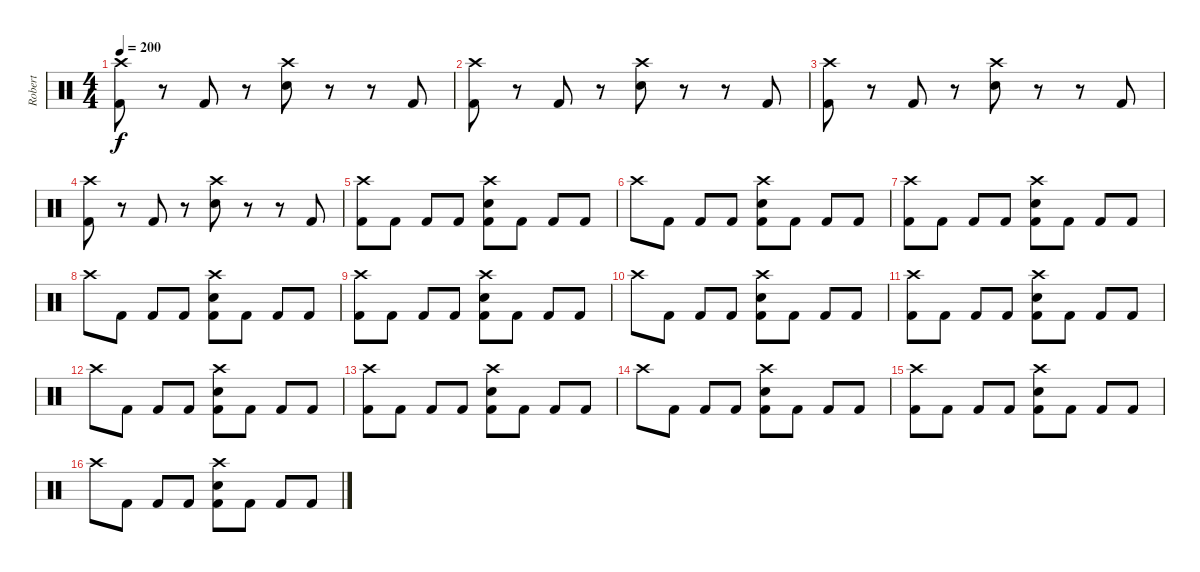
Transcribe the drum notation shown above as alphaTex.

\track ("Robert" "Robert") {instrument percussion}
\staff {score}
\articulation defaults
\ts (4 4)
\tempo 200
\clef neutral
\ks c
("Crash high (hit)" "Kick (hit) 2").8{dy f} r.8 "Kick (hit) 2".8 r.8 ("Crash high (hit)" "Electric Snare (hit)").8 r.8 r.8 "Kick (hit) 2".8 |
("Crash high (hit)" "Kick (hit) 2").8 r.8 "Kick (hit) 2".8 r.8 ("Crash high (hit)" "Electric Snare (hit)").8 r.8 r.8 "Kick (hit) 2".8 |
("Crash high (hit)" "Kick (hit) 2").8 r.8 "Kick (hit) 2".8 r.8 ("Crash high (hit)" "Electric Snare (hit)").8 r.8 r.8 "Kick (hit) 2".8 |
("Crash high (hit)" "Kick (hit) 2").8 r.8 "Kick (hit) 2".8 r.8 ("Crash high (hit)" "Electric Snare (hit)").8 r.8 r.8 "Kick (hit) 2".8 |
("Crash high (hit)" "Kick (hit) 2").8{volume 12} "Kick (hit) 2".8 "Kick (hit) 2".8 "Kick (hit) 2".8 ("Crash high (hit)" "Electric Snare (hit)" "Kick (hit) 2").8 "Kick (hit) 2".8 "Kick (hit) 2".8 "Kick (hit) 2".8 |
"Crash high (hit)".8 "Kick (hit) 2".8 "Kick (hit) 2".8 "Kick (hit) 2".8 ("Crash high (hit)" "Electric Snare (hit)" "Kick (hit) 2").8 "Kick (hit) 2".8 "Kick (hit) 2".8 "Kick (hit) 2".8 |
("Crash high (hit)" "Kick (hit) 2").8 "Kick (hit) 2".8 "Kick (hit) 2".8 "Kick (hit) 2".8 ("Crash high (hit)" "Electric Snare (hit)" "Kick (hit) 2").8 "Kick (hit) 2".8 "Kick (hit) 2".8 "Kick (hit) 2".8 |
"Crash high (hit)".8 "Kick (hit) 2".8 "Kick (hit) 2".8 "Kick (hit) 2".8 ("Crash high (hit)" "Electric Snare (hit)" "Kick (hit) 2").8 "Kick (hit) 2".8 "Kick (hit) 2".8 "Kick (hit) 2".8 |
("Crash high (hit)" "Kick (hit) 2").8 "Kick (hit) 2".8 "Kick (hit) 2".8 "Kick (hit) 2".8 ("Crash high (hit)" "Electric Snare (hit)" "Kick (hit) 2").8 "Kick (hit) 2".8 "Kick (hit) 2".8 "Kick (hit) 2".8 |
"Crash high (hit)".8 "Kick (hit) 2".8 "Kick (hit) 2".8 "Kick (hit) 2".8 ("Crash high (hit)" "Electric Snare (hit)" "Kick (hit) 2").8 "Kick (hit) 2".8 "Kick (hit) 2".8 "Kick (hit) 2".8 |
("Crash high (hit)" "Kick (hit) 2").8 "Kick (hit) 2".8 "Kick (hit) 2".8 "Kick (hit) 2".8 ("Crash high (hit)" "Electric Snare (hit)" "Kick (hit) 2").8 "Kick (hit) 2".8 "Kick (hit) 2".8 "Kick (hit) 2".8 |
"Crash high (hit)".8 "Kick (hit) 2".8 "Kick (hit) 2".8 "Kick (hit) 2".8 ("Crash high (hit)" "Electric Snare (hit)" "Kick (hit) 2").8 "Kick (hit) 2".8 "Kick (hit) 2".8 "Kick (hit) 2".8 |
("Crash high (hit)" "Kick (hit) 2").8{volume 12} "Kick (hit) 2".8 "Kick (hit) 2".8 "Kick (hit) 2".8 ("Crash high (hit)" "Electric Snare (hit)" "Kick (hit) 2").8 "Kick (hit) 2".8 "Kick (hit) 2".8 "Kick (hit) 2".8 |
"Crash high (hit)".8 "Kick (hit) 2".8 "Kick (hit) 2".8 "Kick (hit) 2".8 ("Crash high (hit)" "Electric Snare (hit)" "Kick (hit) 2").8 "Kick (hit) 2".8 "Kick (hit) 2".8 "Kick (hit) 2".8 |
("Crash high (hit)" "Kick (hit) 2").8 "Kick (hit) 2".8 "Kick (hit) 2".8 "Kick (hit) 2".8 ("Crash high (hit)" "Electric Snare (hit)" "Kick (hit) 2").8 "Kick (hit) 2".8 "Kick (hit) 2".8 "Kick (hit) 2".8 |
"Crash high (hit)".8 "Kick (hit) 2".8 "Kick (hit) 2".8 "Kick (hit) 2".8 ("Crash high (hit)" "Electric Snare (hit)" "Kick (hit) 2").8 "Kick (hit) 2".8 "Kick (hit) 2".8 "Kick (hit) 2".8
